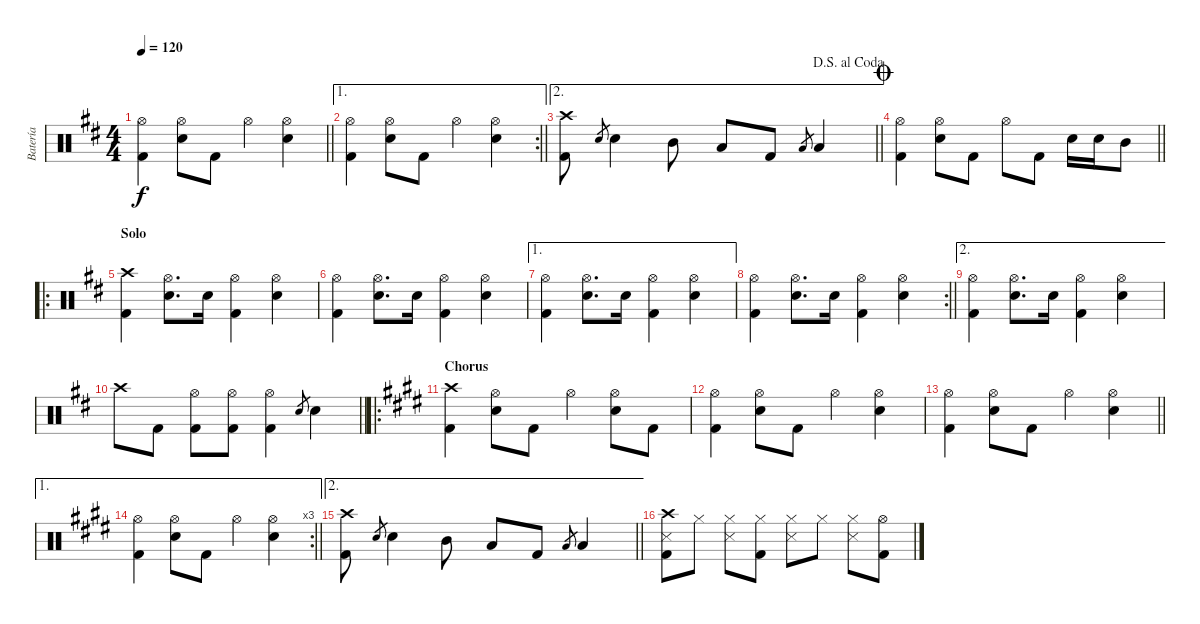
\track ("Batería" "Batería") {instrument percussion}
\staff {score}
\articulation defaults
\ts (4 4)
\tempo 120
\clef neutral
\barLineRight lightlight
\ks bminor
("Hi-Hat (open)" "Kick (hit) 2").4{dy f} ("Hi-Hat (open)" "Snare (hit) 2").8 "Kick (hit) 2".8 "Hi-Hat (open)".4 ("Hi-Hat (open)" "Snare (hit) 2").4 |
\ae 1
\rc 2
\barLineRight lightlight
("Hi-Hat (open)" "Kick (hit) 2").4 ("Hi-Hat (open)" "Snare (hit) 2").8 "Kick (hit) 2".8 "Hi-Hat (open)".4 ("Hi-Hat (open)" "Snare (hit) 2").4 |
\ae 2
\jump dalsegnoalcoda
\barLineRight lightlight
("Crash high (hit)" "Kick (hit) 2").8 "Snare (hit) 2".8{gr} "Snare (hit) 2".4 "Mid Tom (hit)".8 "Low Tom (hit)".8 "Kick (hit) 2".8 "Low Floor Tom (hit)".8{gr} "Low Floor Tom (hit)".4 |
\jump coda
\barLineRight lightlight
("Hi-Hat (open)" "Kick (hit) 2").4 ("Hi-Hat (open)" "Snare (hit) 2").8 "Kick (hit) 2".8 "Hi-Hat (open)".8 "Kick (hit) 2".8 "Snare (hit) 2".16 "Snare (hit) 2".16 "Mid Tom (hit)".8 |
\ro
\section ("" "Solo")
("Crash high (hit)" "Kick (hit) 2").4 ("Hi-Hat (open)" "Snare (hit) 2").8{d} "Snare (hit) 2".16 ("Hi-Hat (open)" "Kick (hit) 2").4 ("Hi-Hat (open)" "Snare (hit) 2").4 |
("Hi-Hat (open)" "Kick (hit) 2").4 ("Hi-Hat (open)" "Snare (hit) 2").8{d} "Snare (hit) 2".16 ("Hi-Hat (open)" "Kick (hit) 2").4 ("Hi-Hat (open)" "Snare (hit) 2").4 |
\ae 1
("Hi-Hat (open)" "Kick (hit) 2").4 ("Hi-Hat (open)" "Snare (hit) 2").8{d} "Snare (hit) 2".16 ("Hi-Hat (open)" "Kick (hit) 2").4 ("Hi-Hat (open)" "Snare (hit) 2").4 |
\rc 2
\barLineRight lightlight
("Hi-Hat (open)" "Kick (hit) 2").4 ("Hi-Hat (open)" "Snare (hit) 2").8{d} "Snare (hit) 2".16 ("Hi-Hat (open)" "Kick (hit) 2").4 ("Hi-Hat (open)" "Snare (hit) 2").4 |
\ae 2
("Hi-Hat (open)" "Kick (hit) 2").4 ("Hi-Hat (open)" "Snare (hit) 2").8{d} "Snare (hit) 2".16 ("Hi-Hat (open)" "Kick (hit) 2").4 ("Hi-Hat (open)" "Snare (hit) 2").4 |
\barLineRight lightlight "Crash high (hit)".8 "Kick (hit) 2".8
("Hi-Hat (open)" "Kick (hit) 2").8 ("Hi-Hat (open)" "Kick (hit) 2").8 ("Hi-Hat (open)" "Kick (hit) 2").4 "Snare (hit) 2".8{gr} "Snare (hit) 2".4 |
\ro
\section ("" "Chorus")
\ks c#minor
("Crash high (hit)" "Kick (hit) 2").4 ("Hi-Hat (open)" "Snare (hit) 2").8 "Kick (hit) 2".8 "Hi-Hat (open)".4 ("Hi-Hat (open)" "Snare (hit) 2").8 "Kick (hit) 2".8 |
("Hi-Hat (open)" "Kick (hit) 2").4 ("Hi-Hat (open)" "Snare (hit) 2").8 "Kick (hit) 2".8 "Hi-Hat (open)".4 ("Hi-Hat (open)" "Snare (hit) 2").4 |
\barLineRight lightlight
("Hi-Hat (open)" "Kick (hit) 2").4 ("Hi-Hat (open)" "Snare (hit) 2").8 "Kick (hit) 2".8 "Hi-Hat (open)".4 ("Hi-Hat (open)" "Snare (hit) 2").4 |
\ae 1
\rc 3
\barLineRight lightlight
("Hi-Hat (open)" "Kick (hit) 2").4 ("Hi-Hat (open)" "Snare (hit) 2").8 "Kick (hit) 2".8 "Hi-Hat (open)".4 ("Hi-Hat (open)" "Snare (hit) 2").4 |
\ae 2
\barLineRight lightlight
("Crash high (hit)" "Kick (hit) 2").8 "Snare (hit) 2".8{gr} "Snare (hit) 2".4 "Mid Tom (hit)".8 "Low Tom (hit)".8 "Kick (hit) 2".8 "Low Floor Tom (hit)".8{gr} "Low Floor Tom (hit)".4 |
("Crash high (hit)" "Snare (side stick) 3" "Kick (hit) 2").8 "Hi-Hat (closed)".8 ("Hi-Hat (closed)" "Snare (side stick) 3").8 ("Hi-Hat (closed)" "Kick (hit) 2").8 ("Hi-Hat (closed)" "Snare (side stick) 3").8 "Hi-Hat (closed)".8 ("Hi-Hat (closed)" "Snare (side stick) 3").8 ("Hi-Hat (open)" "Kick (hit) 2").8
